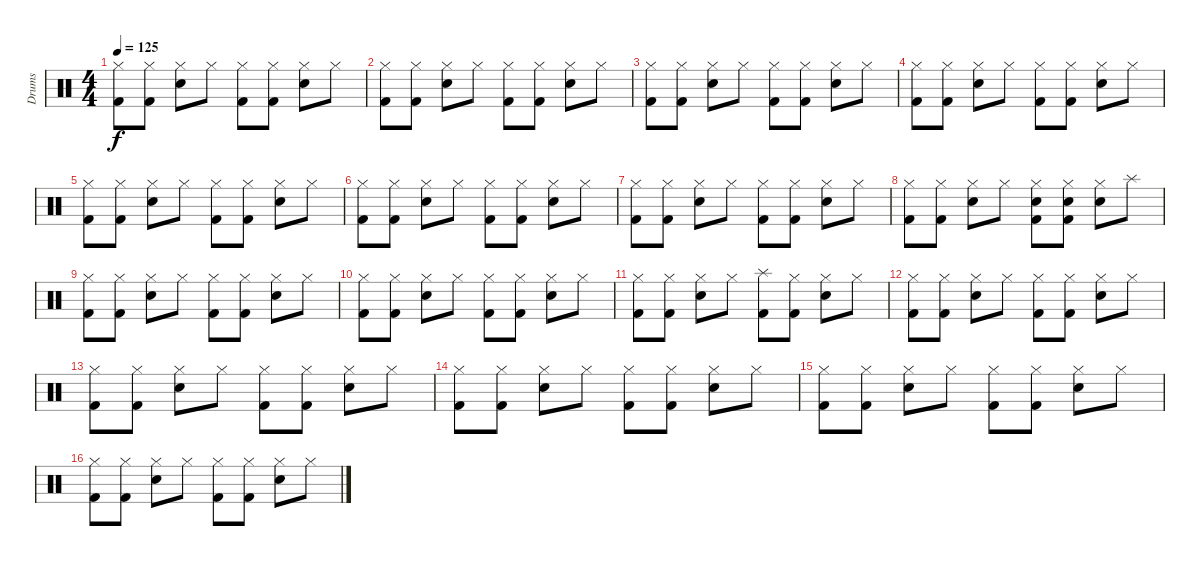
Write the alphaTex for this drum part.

\track ("Drums" "Drums") {instrument percussion}
\staff {score}
\articulation defaults
\ts (4 4)
\tempo 125
\clef neutral
\ks c
("Hi-Hat (closed)" "Kick (hit) 2").8{dy f} ("Hi-Hat (closed)" "Kick (hit) 2").8 ("Hi-Hat (closed)" "Snare (hit) 2").8 "Hi-Hat (closed)".8 ("Hi-Hat (closed)" "Kick (hit) 2").8 ("Hi-Hat (closed)" "Kick (hit) 2").8 ("Hi-Hat (closed)" "Snare (hit) 2").8 "Hi-Hat (closed)".8 |
("Hi-Hat (closed)" "Kick (hit) 2").8 ("Hi-Hat (closed)" "Kick (hit) 2").8 ("Hi-Hat (closed)" "Snare (hit) 2").8 "Hi-Hat (closed)".8 ("Hi-Hat (closed)" "Kick (hit) 2").8 ("Hi-Hat (closed)" "Kick (hit) 2").8 ("Hi-Hat (closed)" "Snare (hit) 2").8 "Hi-Hat (closed)".8 |
("Hi-Hat (closed)" "Kick (hit) 2").8 ("Hi-Hat (closed)" "Kick (hit) 2").8 ("Hi-Hat (closed)" "Snare (hit) 2").8 "Hi-Hat (closed)".8 ("Hi-Hat (closed)" "Kick (hit) 2").8 ("Hi-Hat (closed)" "Kick (hit) 2").8 ("Hi-Hat (closed)" "Snare (hit) 2").8 "Hi-Hat (closed)".8 |
("Hi-Hat (closed)" "Kick (hit) 2").8 ("Hi-Hat (closed)" "Kick (hit) 2").8 ("Hi-Hat (closed)" "Snare (hit) 2").8 "Hi-Hat (closed)".8 ("Hi-Hat (closed)" "Kick (hit) 2").8 ("Hi-Hat (closed)" "Kick (hit) 2").8 ("Hi-Hat (closed)" "Snare (hit) 2").8 "Hi-Hat (closed)".8 |
("Hi-Hat (closed)" "Kick (hit) 2").8 ("Hi-Hat (closed)" "Kick (hit) 2").8 ("Hi-Hat (closed)" "Snare (hit) 2").8 "Hi-Hat (closed)".8 ("Hi-Hat (closed)" "Kick (hit) 2").8 ("Hi-Hat (closed)" "Kick (hit) 2").8 ("Hi-Hat (closed)" "Snare (hit) 2").8 "Hi-Hat (closed)".8 |
("Hi-Hat (closed)" "Kick (hit) 2").8 ("Hi-Hat (closed)" "Kick (hit) 2").8 ("Hi-Hat (closed)" "Snare (hit) 2").8 "Hi-Hat (closed)".8 ("Hi-Hat (closed)" "Kick (hit) 2").8 ("Hi-Hat (closed)" "Kick (hit) 2").8 ("Hi-Hat (closed)" "Snare (hit) 2").8 "Hi-Hat (closed)".8 |
("Hi-Hat (closed)" "Kick (hit) 2").8 ("Hi-Hat (closed)" "Kick (hit) 2").8 ("Hi-Hat (closed)" "Snare (hit) 2").8 "Hi-Hat (closed)".8 ("Hi-Hat (closed)" "Kick (hit) 2").8 ("Hi-Hat (closed)" "Kick (hit) 2").8 ("Hi-Hat (closed)" "Snare (hit) 2").8 "Hi-Hat (closed)".8 |
("Hi-Hat (closed)" "Kick (hit) 2").8 ("Hi-Hat (closed)" "Kick (hit) 2").8 ("Hi-Hat (closed)" "Snare (hit) 2").8 "Hi-Hat (closed)".8 ("Hi-Hat (closed)" "Snare (hit) 2" "Kick (hit) 2").8 ("Hi-Hat (closed)" "Snare (hit) 2" "Kick (hit) 2").8 ("Hi-Hat (closed)" "Snare (hit) 2").8 "Splash (hit)".8 |
("Hi-Hat (closed)" "Kick (hit) 2").8 ("Hi-Hat (closed)" "Kick (hit) 2").8 ("Hi-Hat (closed)" "Snare (hit) 2").8 "Hi-Hat (closed)".8 ("Hi-Hat (closed)" "Kick (hit) 2").8 ("Hi-Hat (closed)" "Kick (hit) 2").8 ("Hi-Hat (closed)" "Snare (hit) 2").8 "Hi-Hat (closed)".8 |
("Hi-Hat (closed)" "Kick (hit) 2").8 ("Hi-Hat (closed)" "Kick (hit) 2").8 ("Hi-Hat (closed)" "Snare (hit) 2").8 "Hi-Hat (closed)".8 ("Hi-Hat (closed)" "Kick (hit) 2").8 ("Hi-Hat (closed)" "Kick (hit) 2").8 ("Hi-Hat (closed)" "Snare (hit) 2").8 "Hi-Hat (closed)".8 |
("Hi-Hat (closed)" "Kick (hit) 2").8 ("Hi-Hat (closed)" "Kick (hit) 2").8 ("Hi-Hat (closed)" "Snare (hit) 2").8 "Hi-Hat (closed)".8 ("Splash (hit)" "Kick (hit) 2").8 ("Hi-Hat (closed)" "Kick (hit) 2").8 ("Hi-Hat (closed)" "Snare (hit) 2").8 "Hi-Hat (closed)".8 |
("Hi-Hat (closed)" "Kick (hit) 2").8 ("Hi-Hat (closed)" "Kick (hit) 2").8 ("Hi-Hat (closed)" "Snare (hit) 2").8 "Hi-Hat (closed)".8 ("Hi-Hat (closed)" "Kick (hit) 2").8 ("Hi-Hat (closed)" "Kick (hit) 2").8 ("Hi-Hat (closed)" "Snare (hit) 2").8 "Hi-Hat (closed)".8 |
("Hi-Hat (closed)" "Kick (hit) 2").8 ("Hi-Hat (closed)" "Kick (hit) 2").8 ("Hi-Hat (closed)" "Snare (hit) 2").8 "Hi-Hat (closed)".8 ("Hi-Hat (closed)" "Kick (hit) 2").8 ("Hi-Hat (closed)" "Kick (hit) 2").8 ("Hi-Hat (closed)" "Snare (hit) 2").8 "Hi-Hat (closed)".8 |
("Hi-Hat (closed)" "Kick (hit) 2").8 ("Hi-Hat (closed)" "Kick (hit) 2").8 ("Hi-Hat (closed)" "Snare (hit) 2").8 "Hi-Hat (closed)".8 ("Hi-Hat (closed)" "Kick (hit) 2").8 ("Hi-Hat (closed)" "Kick (hit) 2").8 ("Hi-Hat (closed)" "Snare (hit) 2").8 "Hi-Hat (closed)".8 |
("Hi-Hat (closed)" "Kick (hit) 2").8 ("Hi-Hat (closed)" "Kick (hit) 2").8 ("Hi-Hat (closed)" "Snare (hit) 2").8 "Hi-Hat (closed)".8 ("Hi-Hat (closed)" "Kick (hit) 2").8 ("Hi-Hat (closed)" "Kick (hit) 2").8 ("Hi-Hat (closed)" "Snare (hit) 2").8 "Hi-Hat (closed)".8 |
("Hi-Hat (closed)" "Kick (hit) 2").8 ("Hi-Hat (closed)" "Kick (hit) 2").8 ("Hi-Hat (closed)" "Snare (hit) 2").8 "Hi-Hat (closed)".8 ("Hi-Hat (closed)" "Kick (hit) 2").8 ("Hi-Hat (closed)" "Kick (hit) 2").8 ("Hi-Hat (closed)" "Snare (hit) 2").8 "Hi-Hat (closed)".8
